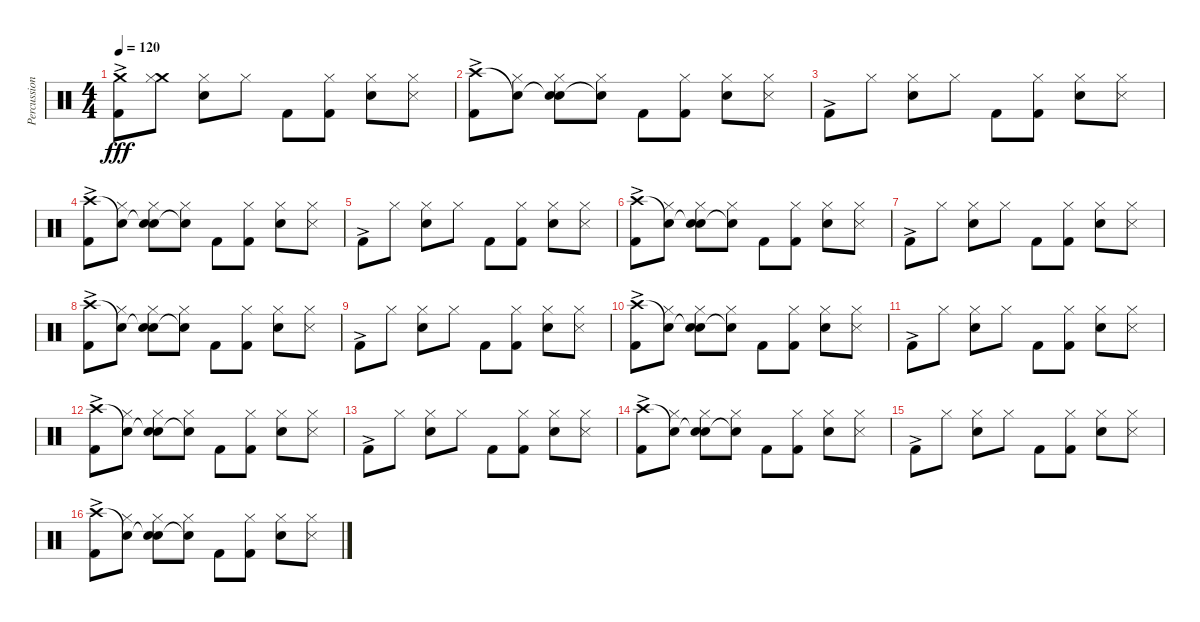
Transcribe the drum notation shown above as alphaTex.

\track ("Percussion" "Percussion") {instrument percussion}
\staff {score}
\articulation defaults
\ts (4 4)
\tempo 120
\clef neutral
\ks c
("Crash medium (hit)" "Kick (hit) 2"{ac}).8{dy fff} ("Crash medium (hit)" "Hi-Hat (closed)").8 ("Hi-Hat (closed)" "Snare (hit) 2").8 "Hi-Hat (closed)".8 "Kick (hit) 2".8 ("Hi-Hat (closed)" "Kick (hit) 2").8 ("Hi-Hat (closed)" "Snare (hit) 2").8 ("Hi-Hat (closed)" "Snare (side stick) 3").8 |
("Crash high (hit)" "Kick (hit) 2"{ac}).8 ("Snare (hit)"{t} "Hi-Hat (closed)").8 ("Snare (hit)"{t} "Hi-Hat (closed)" "Snare (hit) 2").8 ("Snare (hit)"{t} "Hi-Hat (closed)").8 "Kick (hit) 2".8 ("Hi-Hat (closed)" "Kick (hit) 2").8 ("Hi-Hat (closed)" "Snare (hit) 2").8 ("Hi-Hat (closed)" "Snare (side stick) 3").8 |
"Kick (hit) 2"{ac}.8 "Hi-Hat (closed)".8 ("Hi-Hat (closed)" "Snare (hit) 2").8 "Hi-Hat (closed)".8 "Kick (hit) 2".8 ("Hi-Hat (closed)" "Kick (hit) 2").8 ("Hi-Hat (closed)" "Snare (hit) 2").8 ("Hi-Hat (closed)" "Snare (side stick) 3").8 |
("Crash high (hit)" "Kick (hit) 2"{ac}).8 ("Snare (hit)"{t} "Hi-Hat (closed)").8 ("Snare (hit)"{t} "Hi-Hat (closed)" "Snare (hit) 2").8 ("Snare (hit)"{t} "Hi-Hat (closed)").8 "Kick (hit) 2".8 ("Hi-Hat (closed)" "Kick (hit) 2").8 ("Hi-Hat (closed)" "Snare (hit) 2").8 ("Hi-Hat (closed)" "Snare (side stick) 3").8 |
"Kick (hit) 2"{ac}.8 "Hi-Hat (closed)".8 ("Hi-Hat (closed)" "Snare (hit) 2").8 "Hi-Hat (closed)".8 "Kick (hit) 2".8 ("Hi-Hat (closed)" "Kick (hit) 2").8 ("Hi-Hat (closed)" "Snare (hit) 2").8 ("Hi-Hat (closed)" "Snare (side stick) 3").8 |
("Crash high (hit)" "Kick (hit) 2"{ac}).8 ("Snare (hit)"{t} "Hi-Hat (closed)").8 ("Snare (hit)"{t} "Hi-Hat (closed)" "Snare (hit) 2").8 ("Snare (hit)"{t} "Hi-Hat (closed)").8 "Kick (hit) 2".8 ("Hi-Hat (closed)" "Kick (hit) 2").8 ("Hi-Hat (closed)" "Snare (hit) 2").8 ("Hi-Hat (closed)" "Snare (side stick) 3").8 |
"Kick (hit) 2"{ac}.8 "Hi-Hat (closed)".8 ("Hi-Hat (closed)" "Snare (hit) 2").8 "Hi-Hat (closed)".8 "Kick (hit) 2".8 ("Hi-Hat (closed)" "Kick (hit) 2").8 ("Hi-Hat (closed)" "Snare (hit) 2").8 ("Hi-Hat (closed)" "Snare (side stick) 3").8 |
("Crash high (hit)" "Kick (hit) 2"{ac}).8 ("Snare (hit)"{t} "Hi-Hat (closed)").8 ("Snare (hit)"{t} "Hi-Hat (closed)" "Snare (hit) 2").8 ("Snare (hit)"{t} "Hi-Hat (closed)").8 "Kick (hit) 2".8 ("Hi-Hat (closed)" "Kick (hit) 2").8 ("Hi-Hat (closed)" "Snare (hit) 2").8 ("Hi-Hat (closed)" "Snare (side stick) 3").8 |
"Kick (hit) 2"{ac}.8 "Hi-Hat (closed)".8 ("Hi-Hat (closed)" "Snare (hit) 2").8 "Hi-Hat (closed)".8 "Kick (hit) 2".8 ("Hi-Hat (closed)" "Kick (hit) 2").8 ("Hi-Hat (closed)" "Snare (hit) 2").8 ("Hi-Hat (closed)" "Snare (side stick) 3").8 |
("Crash high (hit)" "Kick (hit) 2"{ac}).8 ("Snare (hit)"{t} "Hi-Hat (closed)").8 ("Snare (hit)"{t} "Hi-Hat (closed)" "Snare (hit) 2").8 ("Snare (hit)"{t} "Hi-Hat (closed)").8 "Kick (hit) 2".8 ("Hi-Hat (closed)" "Kick (hit) 2").8 ("Hi-Hat (closed)" "Snare (hit) 2").8 ("Hi-Hat (closed)" "Snare (side stick) 3").8 |
"Kick (hit) 2"{ac}.8 "Hi-Hat (closed)".8 ("Hi-Hat (closed)" "Snare (hit) 2").8 "Hi-Hat (closed)".8 "Kick (hit) 2".8 ("Hi-Hat (closed)" "Kick (hit) 2").8 ("Hi-Hat (closed)" "Snare (hit) 2").8 ("Hi-Hat (closed)" "Snare (side stick) 3").8 |
("Crash high (hit)" "Kick (hit) 2"{ac}).8 ("Snare (hit)"{t} "Hi-Hat (closed)").8 ("Snare (hit)"{t} "Hi-Hat (closed)" "Snare (hit) 2").8 ("Snare (hit)"{t} "Hi-Hat (closed)").8 "Kick (hit) 2".8 ("Hi-Hat (closed)" "Kick (hit) 2").8 ("Hi-Hat (closed)" "Snare (hit) 2").8 ("Hi-Hat (closed)" "Snare (side stick) 3").8 |
"Kick (hit) 2"{ac}.8 "Hi-Hat (closed)".8 ("Hi-Hat (closed)" "Snare (hit) 2").8 "Hi-Hat (closed)".8 "Kick (hit) 2".8 ("Hi-Hat (closed)" "Kick (hit) 2").8 ("Hi-Hat (closed)" "Snare (hit) 2").8 ("Hi-Hat (closed)" "Snare (side stick) 3").8 |
("Crash high (hit)" "Kick (hit) 2"{ac}).8 ("Snare (hit)"{t} "Hi-Hat (closed)").8 ("Snare (hit)"{t} "Hi-Hat (closed)" "Snare (hit) 2").8 ("Snare (hit)"{t} "Hi-Hat (closed)").8 "Kick (hit) 2".8 ("Hi-Hat (closed)" "Kick (hit) 2").8 ("Hi-Hat (closed)" "Snare (hit) 2").8 ("Hi-Hat (closed)" "Snare (side stick) 3").8 |
"Kick (hit) 2"{ac}.8 "Hi-Hat (closed)".8 ("Hi-Hat (closed)" "Snare (hit) 2").8 "Hi-Hat (closed)".8 "Kick (hit) 2".8 ("Hi-Hat (closed)" "Kick (hit) 2").8 ("Hi-Hat (closed)" "Snare (hit) 2").8 ("Hi-Hat (closed)" "Snare (side stick) 3").8 |
("Crash high (hit)" "Kick (hit) 2"{ac}).8 ("Snare (hit)"{t} "Hi-Hat (closed)").8 ("Snare (hit)"{t} "Hi-Hat (closed)" "Snare (hit) 2").8 ("Snare (hit)"{t} "Hi-Hat (closed)").8 "Kick (hit) 2".8 ("Hi-Hat (closed)" "Kick (hit) 2").8 ("Hi-Hat (closed)" "Snare (hit) 2").8 ("Hi-Hat (closed)" "Snare (side stick) 3").8
